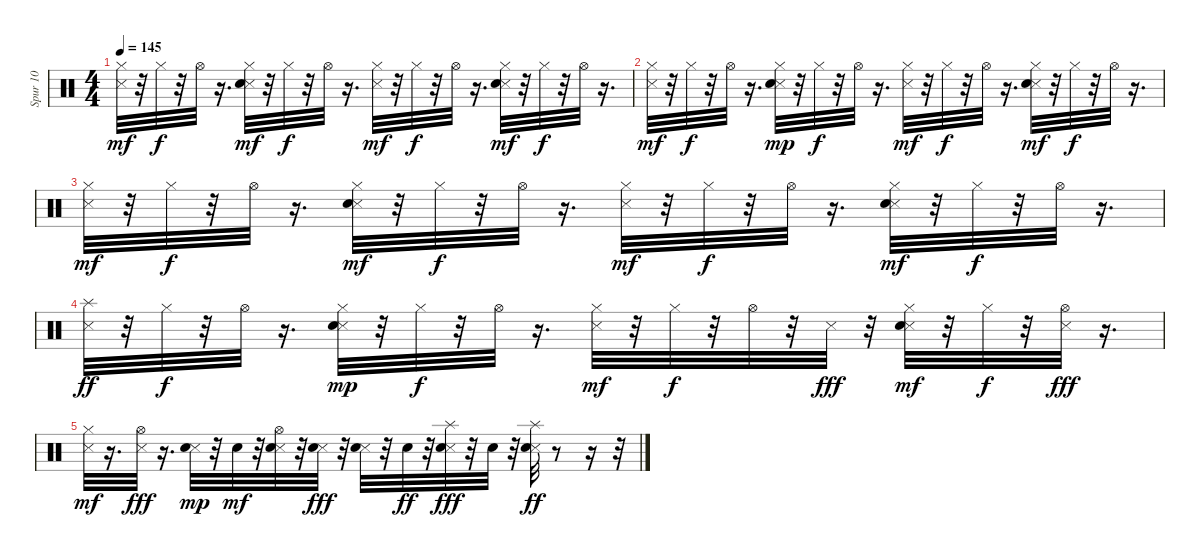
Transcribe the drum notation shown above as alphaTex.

\track ("Spur 10" "Spur 10") {instrument percussion}
\staff {score}
\articulation defaults
\ts (4 4)
\tempo 145
\clef neutral
\ks c
("Metronome (hit)" "Hi-Hat (closed)").32{dy mf} r.32 "Hi-Hat (closed)".32{dy f} r.32 "Hi-Hat (open)".32 r.16{d} ("Metronome (hit)" "Snare (hit) 2" "Hi-Hat (closed)").32{dy mf} r.32 "Hi-Hat (closed)".32{dy f} r.32 "Hi-Hat (open)".32 r.16{d} ("Metronome (hit)" "Hi-Hat (closed)").32{dy mf} r.32 "Hi-Hat (closed)".32{dy f} r.32 "Hi-Hat (open)".32 r.16{d} ("Metronome (hit)" "Snare (hit) 2" "Hi-Hat (closed)").32{dy mf} r.32 "Hi-Hat (closed)".32{dy f} r.32 "Hi-Hat (open)".32 r.16{d} |
("Metronome (hit)" "Hi-Hat (closed)").32{dy mf} r.32 "Hi-Hat (closed)".32{dy f} r.32 "Hi-Hat (open)".32 r.16{d} ("Metronome (hit)" "Snare (hit) 2" "Hi-Hat (closed)").32{dy mp} r.32 "Hi-Hat (closed)".32{dy f} r.32 "Hi-Hat (open)".32 r.16{d} ("Metronome (hit)" "Hi-Hat (closed)").32{dy mf} r.32 "Hi-Hat (closed)".32{dy f} r.32 "Hi-Hat (open)".32 r.16{d} ("Metronome (hit)" "Snare (hit) 2" "Hi-Hat (closed)").32{dy mf} r.32 "Hi-Hat (closed)".32{dy f} r.32 "Hi-Hat (open)".32 r.16{d} |
("Metronome (hit)" "Hi-Hat (closed)").32{dy mf} r.32 "Hi-Hat (closed)".32{dy f} r.32 "Hi-Hat (open)".32 r.16{d} ("Metronome (hit)" "Snare (hit) 2" "Hi-Hat (closed)").32{dy mf} r.32 "Hi-Hat (closed)".32{dy f} r.32 "Hi-Hat (open)".32 r.16{d} ("Metronome (hit)" "Hi-Hat (closed)").32{dy mf} r.32 "Hi-Hat (closed)".32{dy f} r.32 "Hi-Hat (open)".32 r.16{d} ("Metronome (hit)" "Snare (hit) 2" "Hi-Hat (closed)").32{dy mf} r.32 "Hi-Hat (closed)".32{dy f} r.32 "Hi-Hat (open)".32 r.16{d} |
("Metronome (hit)" "Splash (hit)").32{dy ff} r.32 "Hi-Hat (closed)".32{dy f} r.32 "Hi-Hat (open)".32 r.16{d} ("Metronome (hit)" "Snare (hit) 2" "Hi-Hat (closed)").32{dy mp} r.32 "Hi-Hat (closed)".32{dy f} r.32 "Hi-Hat (open)".32 r.16{d} ("Metronome (hit)" "Hi-Hat (closed)").32{dy mf} r.32 "Hi-Hat (closed)".32{dy f} r.32 "Hi-Hat (open)".32 r.32 "Metronome (hit)".32{dy fff} r.32 ("Metronome (hit)" "Snare (hit) 2" "Hi-Hat (closed)").32{dy mf} r.32 "Hi-Hat (closed)".32{dy f} r.32 ("Metronome (hit)" "Hi-Hat (open)").32{dy fff} r.16{d} |
("Metronome (hit)" "Hi-Hat (closed)").32{dy mf} r.16{d} ("Metronome (hit)" "Hi-Hat (open)").32{dy fff} r.16{d} ("Metronome (hit)" "Snare (hit) 2").32{dy mp} r.32 "Snare (hit) 2".32{dy mf} r.32 ("Metronome (hit)" "Snare (hit) 2" "Hi-Hat (open)").32 r.32 ("Metronome (hit)" "Snare (hit) 2").32{dy fff} r.32 ("Metronome (hit)" "Snare (hit) 2").32 r.32 "Snare (hit) 2".32{dy ff} r.32 ("Metronome (hit)" "Snare (hit) 2" "Splash (hit)").32{dy fff} r.32 "Snare (hit) 2".32 r.32 ("Metronome (hit)" "Snare (hit) 2" "Splash (hit)").32{dy ff} r.8 r.16 r.32
